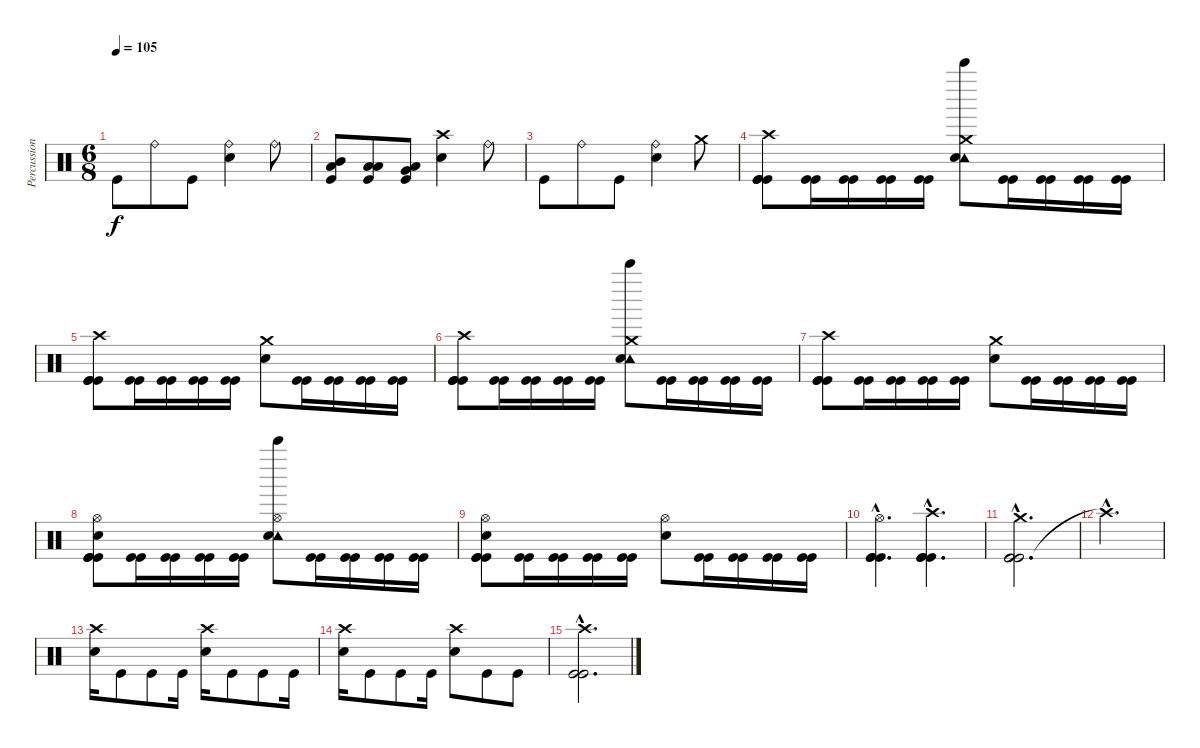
\track ("Percussions" "Percussion") {instrument percussion}
\staff {score}
\articulation defaults
\ts (6 8)
\tempo 105
\clef neutral
\ks c "Kick (hit)".8{dy f} "Ride (bell)".8 "Kick (hit)".8
("Snare (hit) 2" "Ride (bell)").4 "Ride (bell)".8 |
("Low Floor Tom (hit)" "Kick (hit)" "Mid Tom (hit)").8 ("Low Floor Tom (hit)" "Kick (hit)" "Low Tom (hit)").8 ("Low Floor Tom (hit)" "Kick (hit)" "Very Low Tom (hit)").8 ("Crash high (hit)" "Snare (hit) 2").4 "Ride (bell)".8 |
"Kick (hit)".8 "Ride (bell)".8 "Kick (hit)".8 ("Snare (hit) 2" "Ride (bell)").4 "Crash medium (hit)".8 |
("Kick (hit)" "Kick (hit)" "Kick (hit)" "Crash high (hit)").8 ("Kick (hit)" "Kick (hit)").16 ("Kick (hit)" "Kick (hit)").16 ("Kick (hit)" "Kick (hit)").16 ("Kick (hit)" "Kick (hit)").16 ("Tambourine (hit)" "Bell Tree (hit)" "Snare (hit) 2" "Crash medium (hit)").8 ("Kick (hit)" "Kick (hit)").16 ("Kick (hit)" "Kick (hit)").16 ("Kick (hit)" "Kick (hit)").16 ("Kick (hit)" "Kick (hit)").16 |
("Kick (hit)" "Kick (hit)" "Kick (hit)" "Crash high (hit)").8 ("Kick (hit)" "Kick (hit)").16 ("Kick (hit)" "Kick (hit)").16 ("Kick (hit)" "Kick (hit)").16 ("Kick (hit)" "Kick (hit)").16 ("Snare (hit) 2" "Crash medium (hit)").8 ("Kick (hit)" "Kick (hit)").16 ("Kick (hit)" "Kick (hit)").16 ("Kick (hit)" "Kick (hit)").16 ("Kick (hit)" "Kick (hit)").16 |
("Kick (hit)" "Kick (hit)" "Kick (hit)" "Crash high (hit)").8 ("Kick (hit)" "Kick (hit)").16 ("Kick (hit)" "Kick (hit)").16 ("Kick (hit)" "Kick (hit)").16 ("Kick (hit)" "Kick (hit)").16 ("Bell Tree (hit)" "Tambourine (hit)" "Snare (hit) 2" "Crash medium (hit)").8 ("Kick (hit)" "Kick (hit)").16 ("Kick (hit)" "Kick (hit)").16 ("Kick (hit)" "Kick (hit)").16 ("Kick (hit)" "Kick (hit)").16 |
("Kick (hit)" "Kick (hit)" "Kick (hit)" "Crash high (hit)").8 ("Kick (hit)" "Kick (hit)").16 ("Kick (hit)" "Kick (hit)").16 ("Kick (hit)" "Kick (hit)").16 ("Kick (hit)" "Kick (hit)").16 ("Snare (hit) 2" "Crash medium (hit)").8 ("Kick (hit)" "Kick (hit)").16 ("Kick (hit)" "Kick (hit)").16 ("Kick (hit)" "Kick (hit)").16 ("Kick (hit)" "Kick (hit)").16 |
("Kick (hit)" "Kick (hit)" "Kick (hit)" "Snare (hit) 2" "Hi-Hat (open)").8 ("Kick (hit)" "Kick (hit)").16 ("Kick (hit)" "Kick (hit)").16 ("Kick (hit)" "Kick (hit)").16 ("Kick (hit)" "Kick (hit)").16 ("Bell Tree (hit)" "Tambourine (hit)" "Snare (hit) 2" "Hi-Hat (open)").8 ("Kick (hit)" "Kick (hit)").16 ("Kick (hit)" "Kick (hit)").16 ("Kick (hit)" "Kick (hit)").16 ("Kick (hit)" "Kick (hit)").16 |
("Kick (hit)" "Kick (hit)" "Kick (hit)" "Hi-Hat (open)" "Snare (hit) 2").8 ("Kick (hit)" "Kick (hit)").16 ("Kick (hit)" "Kick (hit)").16 ("Kick (hit)" "Kick (hit)").16 ("Kick (hit)" "Kick (hit)").16 ("Snare (hit) 2" "Hi-Hat (open)").8 ("Kick (hit)" "Kick (hit)").16 ("Kick (hit)" "Kick (hit)").16 ("Kick (hit)" "Kick (hit)").16 ("Kick (hit)" "Kick (hit)").16 |
("Kick (hit)"{hac} "Kick (hit)"{hac} "Kick (hit)"{hac} "Hi-Hat (open)"{hac}).4{d} ("Kick (hit)"{hac} "Kick (hit)"{hac} "Kick (hit)"{hac} "Crash high (hit)"{hac}).4{d} |
("Kick (hit)"{hac} "Kick (hit)"{hac} "Kick (hit)"{hac} "Crash medium (hit)"{hac}).2{d} |
"Crash high (hit)"{hac t}.2{d} |
("Crash high (hit)" "Snare (hit) 2").16 "Kick (hit)".8 "Kick (hit)".8 "Kick (hit)".16 ("Crash high (hit)" "Snare (hit) 2").16 "Kick (hit)".8 "Kick (hit)".8 "Kick (hit)".16 |
("Crash high (hit)" "Snare (hit) 2").16 "Kick (hit)".8 "Kick (hit)".8 "Kick (hit)".16 ("Crash high (hit)" "Snare (hit) 2").8 "Kick (hit)".8 "Kick (hit)".8 |
("Crash high (hit)"{hac} "Kick (hit)"{hac} "Kick (hit)"{hac}).2{d}
